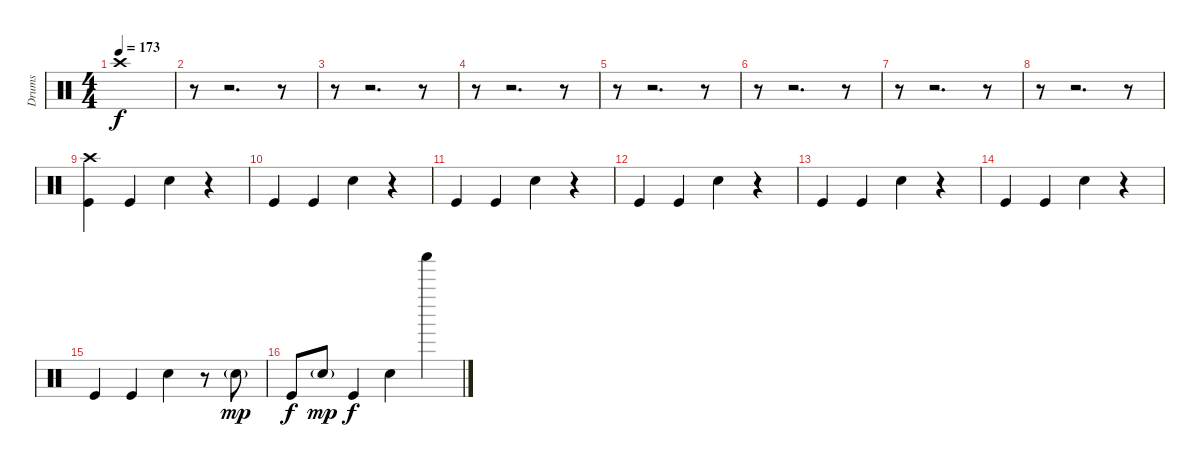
\track ("Drums" "Drums") {instrument percussion}
\staff {score}
\articulation defaults
\ts (4 4)
\tempo 173
\clef neutral
\ks c "Crash high (hit)".1{dy f}
|
r.8 r.2{d} r.8 |
r.8 r.2{d} r.8 |
r.8 r.2{d} r.8 |
r.8 r.2{d} r.8 |
r.8 r.2{d} r.8 |
r.8 r.2{d} r.8 |
r.8 r.2{d} r.8 |
("Kick (hit)" "Crash high (hit)").4 "Kick (hit)".4 "Snare (hit) 2".4 r.4 |
"Kick (hit)".4 "Kick (hit)".4 "Snare (hit) 2".4 r.4 |
"Kick (hit)".4 "Kick (hit)".4 "Snare (hit) 2".4 r.4 |
"Kick (hit)".4 "Kick (hit)".4 "Snare (hit) 2".4 r.4 |
"Kick (hit)".4 "Kick (hit)".4 "Snare (hit) 2".4 r.4 |
"Kick (hit)".4 "Kick (hit)".4 "Snare (hit) 2".4 r.4 |
"Kick (hit)".4 "Kick (hit)".4 "Snare (hit) 2".4 r.8 "Snare (hit) 2"{g}.8{dy mp} |
"Kick (hit)".8{dy f} "Snare (hit) 2"{g}.8{dy mp} "Kick (hit)".4{dy f} "Snare (hit) 2".4 "Shaker (hit)".4
